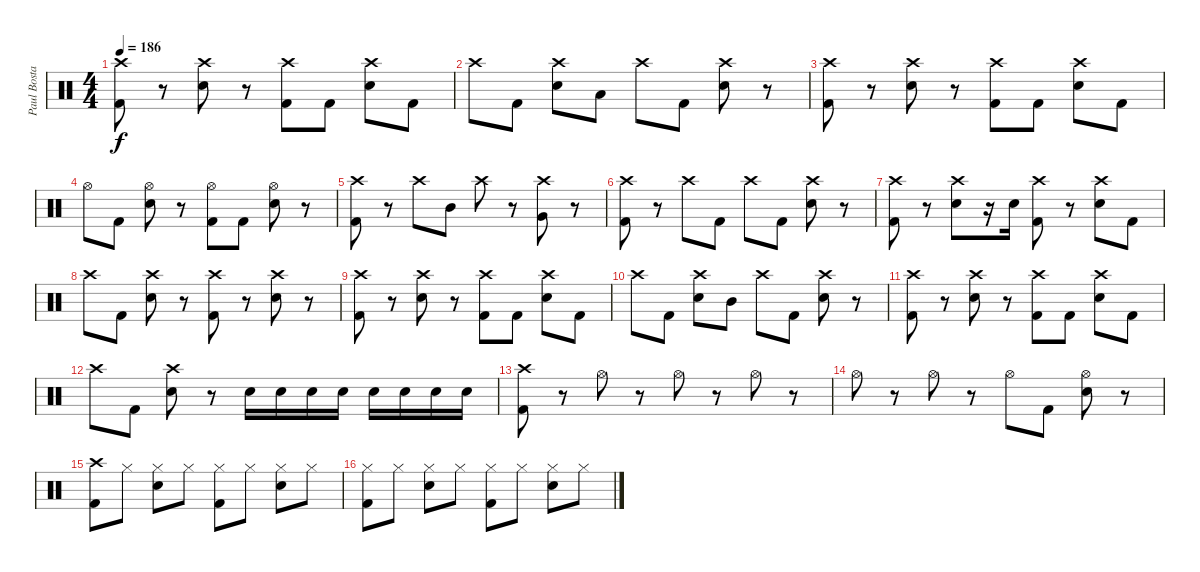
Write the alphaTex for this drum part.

\track ("Paul Bostaph" "Paul Bosta") {instrument percussion}
\staff {score}
\articulation defaults
\ts (4 4)
\tempo 186
\clef neutral
\ks c
("Crash high (hit)" "Kick (hit) 2").8{dy f} r.8 ("Crash high (hit)" "Electric Snare (hit)").8 r.8 ("Crash high (hit)" "Kick (hit) 2").8 "Kick (hit) 2".8 ("Crash high (hit)" "Electric Snare (hit)").8 "Kick (hit) 2".8 |
"Crash high (hit)".8 "Kick (hit) 2".8 ("Crash high (hit)" "Electric Snare (hit)").8 "Low Tom (hit)".8 "Crash high (hit)".8 "Kick (hit) 2".8 ("Crash high (hit)" "Electric Snare (hit)").8 r.8 |
("Crash high (hit)" "Kick (hit) 2").8 r.8 ("Crash high (hit)" "Electric Snare (hit)").8 r.8 ("Crash high (hit)" "Kick (hit) 2").8 "Kick (hit) 2".8 ("Crash high (hit)" "Electric Snare (hit)").8 "Kick (hit) 2".8 |
"Hi-Hat (open)".8 "Kick (hit) 2".8 ("Hi-Hat (open)" "Electric Snare (hit)").8 r.8 ("Hi-Hat (open)" "Kick (hit) 2").8 "Kick (hit) 2".8 ("Hi-Hat (open)" "Electric Snare (hit)").8 r.8 |
("Crash high (hit)" "Kick (hit) 2").8 r.8 "Crash high (hit)".8 "Mid Tom (hit)".8 "Crash high (hit)".8 r.8 ("Crash high (hit)" "Very Low Tom (hit)").8 r.8 |
("Crash high (hit)" "Kick (hit) 2").8 r.8 "Crash high (hit)".8 "Kick (hit) 2".8 "Crash high (hit)".8 "Kick (hit) 2".8 ("Crash high (hit)" "Electric Snare (hit)").8 r.8 |
("Crash high (hit)" "Kick (hit) 2").8 r.8 ("Crash high (hit)" "Electric Snare (hit)").8 r.16 "Electric Snare (hit)".16 ("Crash high (hit)" "Kick (hit) 2").8 r.8 ("Crash high (hit)" "Electric Snare (hit)").8 "Kick (hit) 2".8 |
"Crash high (hit)".8 "Kick (hit) 2".8 ("Crash high (hit)" "Electric Snare (hit)").8 r.8 ("Crash high (hit)" "Kick (hit) 2").8 r.8 ("Crash high (hit)" "Electric Snare (hit)").8 r.8 |
("Crash high (hit)" "Kick (hit) 2").8 r.8 ("Crash high (hit)" "Electric Snare (hit)").8 r.8 ("Crash high (hit)" "Kick (hit) 2").8 "Kick (hit) 2".8 ("Crash high (hit)" "Electric Snare (hit)").8 "Kick (hit) 2".8 |
"Crash high (hit)".8 "Kick (hit) 2".8 ("Crash high (hit)" "Electric Snare (hit)").8 "Mid Tom (hit)".8 "Crash high (hit)".8 "Kick (hit) 2".8 ("Crash high (hit)" "Electric Snare (hit)").8 r.8 |
("Crash high (hit)" "Kick (hit) 2").8 r.8 ("Crash high (hit)" "Electric Snare (hit)").8 r.8 ("Crash high (hit)" "Kick (hit) 2").8 "Kick (hit) 2".8 ("Crash high (hit)" "Electric Snare (hit)").8 "Kick (hit) 2".8 |
"Crash high (hit)".8 "Kick (hit) 2".8 ("Crash high (hit)" "Electric Snare (hit)").8 r.8 "Electric Snare (hit)".16 "Electric Snare (hit)".16 "Electric Snare (hit)".16 "Electric Snare (hit)".16 "Electric Snare (hit)".16 "Electric Snare (hit)".16 "Electric Snare (hit)".16 "Electric Snare (hit)".16 |
("Crash high (hit)" "Kick (hit) 2").8 r.8 "Hi-Hat (open)".8 r.8 "Hi-Hat (open)".8 r.8 "Hi-Hat (open)".8 r.8 |
"Hi-Hat (open)".8 r.8 "Hi-Hat (open)".8 r.8 "Hi-Hat (open)".8 "Kick (hit) 2".8 ("Hi-Hat (open)" "Electric Snare (hit)").8 r.8 |
("Crash high (hit)" "Kick (hit) 2").8 "Hi-Hat (closed)".8 ("Hi-Hat (closed)" "Electric Snare (hit)").8 "Hi-Hat (closed)".8 ("Hi-Hat (closed)" "Kick (hit) 2").8 "Hi-Hat (closed)".8 ("Hi-Hat (closed)" "Electric Snare (hit)").8 "Hi-Hat (closed)".8 |
("Hi-Hat (closed)" "Kick (hit) 2").8 "Hi-Hat (closed)".8 ("Hi-Hat (closed)" "Electric Snare (hit)").8 "Hi-Hat (closed)".8 ("Hi-Hat (closed)" "Kick (hit) 2").8 "Hi-Hat (closed)".8 ("Hi-Hat (closed)" "Electric Snare (hit)").8 "Hi-Hat (closed)".8
